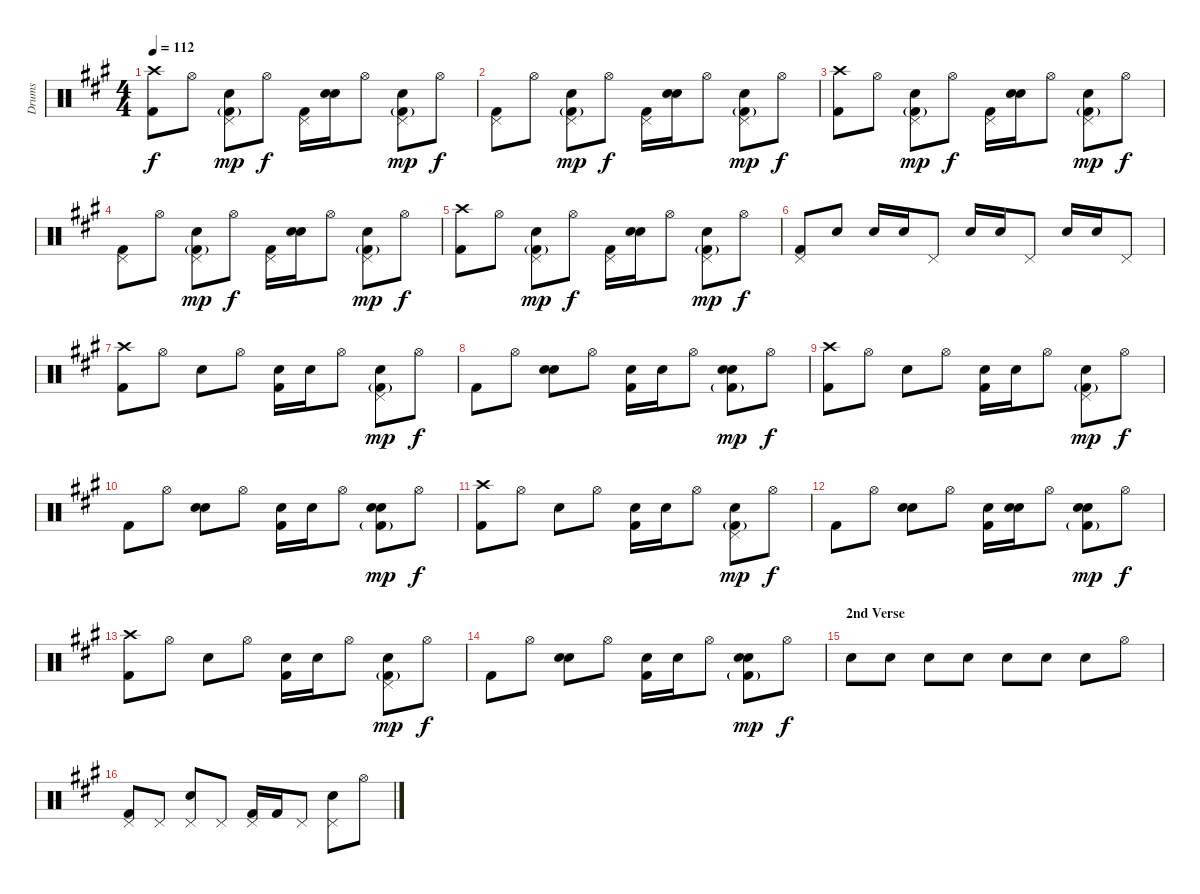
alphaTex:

\track ("Drums" "Drums") {instrument percussion}
\staff {score}
\articulation defaults
\ts (4 4)
\tempo 112
\clef neutral
\ks a
("Crash high (hit)" "Kick (hit) 2").8{dy f} "Hi-Hat (open)".8 ("Pedal Hi-Hat (hit)" "Electric Snare (hit)" "Kick (hit) 2"{g}).8{dy mp} "Hi-Hat (open)".8{dy f} ("Pedal Hi-Hat (hit)" "Kick (hit) 2").16 ("Snare (hit)"{x} "Electric Snare (hit)").16 "Hi-Hat (open)".8 ("Pedal Hi-Hat (hit)" "Electric Snare (hit)" "Kick (hit) 2"{g}).8{dy mp} "Hi-Hat (open)".8{dy f} |
("Pedal Hi-Hat (hit)" "Kick (hit) 2").8 "Hi-Hat (open)".8 ("Pedal Hi-Hat (hit)" "Electric Snare (hit)" "Kick (hit) 2"{g}).8{dy mp} "Hi-Hat (open)".8{dy f} ("Pedal Hi-Hat (hit)" "Kick (hit) 2").16 ("Snare (hit)"{x} "Electric Snare (hit)").16 "Hi-Hat (open)".8 ("Pedal Hi-Hat (hit)" "Electric Snare (hit)" "Kick (hit) 2"{g}).8{dy mp} "Hi-Hat (open)".8{dy f} |
("Crash high (hit)" "Kick (hit) 2").8 "Hi-Hat (open)".8 ("Pedal Hi-Hat (hit)" "Electric Snare (hit)" "Kick (hit) 2"{g}).8{dy mp} "Hi-Hat (open)".8{dy f} ("Pedal Hi-Hat (hit)" "Kick (hit) 2").16 ("Snare (hit)"{x} "Electric Snare (hit)").16 "Hi-Hat (open)".8 ("Pedal Hi-Hat (hit)" "Electric Snare (hit)" "Kick (hit) 2"{g}).8{dy mp} "Hi-Hat (open)".8{dy f} |
("Pedal Hi-Hat (hit)" "Kick (hit) 2").8 "Hi-Hat (open)".8 ("Pedal Hi-Hat (hit)" "Electric Snare (hit)" "Kick (hit) 2"{g}).8{dy mp} "Hi-Hat (open)".8{dy f} ("Pedal Hi-Hat (hit)" "Kick (hit) 2").16 ("Snare (hit)"{x} "Electric Snare (hit)").16 "Hi-Hat (open)".8 ("Pedal Hi-Hat (hit)" "Electric Snare (hit)" "Kick (hit) 2"{g}).8{dy mp} "Hi-Hat (open)".8{dy f} |
("Crash high (hit)" "Kick (hit) 2").8 "Hi-Hat (open)".8 ("Pedal Hi-Hat (hit)" "Electric Snare (hit)" "Kick (hit) 2"{g}).8{dy mp} "Hi-Hat (open)".8{dy f} ("Pedal Hi-Hat (hit)" "Kick (hit) 2").16 ("Snare (hit)"{x} "Electric Snare (hit)").16 "Hi-Hat (open)".8 ("Pedal Hi-Hat (hit)" "Electric Snare (hit)" "Kick (hit) 2"{g}).8{dy mp} "Hi-Hat (open)".8{dy f} |
("Pedal Hi-Hat (hit)" "Kick (hit) 2").8 "Electric Snare (hit)".8 "Electric Snare (hit)".16 "Electric Snare (hit)".16 "Pedal Hi-Hat (hit)".8 "Electric Snare (hit)".16 "Electric Snare (hit)".16 "Pedal Hi-Hat (hit)".8 "Electric Snare (hit)".16 "Electric Snare (hit)".16 "Pedal Hi-Hat (hit)".8 |
("Crash high (hit)" "Kick (hit) 2").8 "Hi-Hat (open)".8 "Electric Snare (hit)".8 "Hi-Hat (open)".8 ("Snare (hit)"{x} "Kick (hit) 2").16 "Electric Snare (hit)".16 "Hi-Hat (open)".8 ("Pedal Hi-Hat (hit)"{x} "Electric Snare (hit)" "Kick (hit) 2"{g}).8{dy mp} "Hi-Hat (open)".8{dy f} |
"Kick (hit) 2".8 "Hi-Hat (open)".8 ("Snare (hit)"{x} "Electric Snare (hit)").8 "Hi-Hat (open)".8 ("Snare (hit)"{x} "Kick (hit) 2").16 "Electric Snare (hit)".16 "Hi-Hat (open)".8 ("Snare (hit)"{x} "Electric Snare (hit)" "Kick (hit) 2"{g}).8{dy mp} "Hi-Hat (open)".8{dy f} |
("Crash high (hit)" "Kick (hit) 2").8 "Hi-Hat (open)".8 "Electric Snare (hit)".8 "Hi-Hat (open)".8 ("Snare (hit)"{x} "Kick (hit) 2").16 "Electric Snare (hit)".16 "Hi-Hat (open)".8 ("Pedal Hi-Hat (hit)"{x} "Electric Snare (hit)" "Kick (hit) 2"{g}).8{dy mp} "Hi-Hat (open)".8{dy f} |
"Kick (hit) 2".8 "Hi-Hat (open)".8 ("Snare (hit)"{x} "Electric Snare (hit)").8 "Hi-Hat (open)".8 ("Snare (hit)"{x} "Kick (hit) 2").16 "Electric Snare (hit)".16 "Hi-Hat (open)".8 ("Snare (hit)"{x} "Electric Snare (hit)" "Kick (hit) 2"{g}).8{dy mp} "Hi-Hat (open)".8{dy f} |
("Crash high (hit)" "Kick (hit) 2").8 "Hi-Hat (open)".8 "Electric Snare (hit)".8 "Hi-Hat (open)".8 ("Snare (hit)"{x} "Kick (hit) 2").16 "Electric Snare (hit)".16 "Hi-Hat (open)".8 ("Pedal Hi-Hat (hit)"{x} "Electric Snare (hit)" "Kick (hit) 2"{g}).8{dy mp} "Hi-Hat (open)".8{dy f} |
"Kick (hit) 2".8 "Hi-Hat (open)".8 ("Snare (hit)"{x} "Electric Snare (hit)").8 "Hi-Hat (open)".8 ("Snare (hit)"{x} "Kick (hit) 2").16 ("Snare (hit)" "Electric Snare (hit)").16 "Hi-Hat (open)".8 ("Snare (hit)"{x} "Electric Snare (hit)" "Kick (hit) 2"{g}).8{dy mp} "Hi-Hat (open)".8{dy f} |
("Crash high (hit)" "Kick (hit) 2").8 "Hi-Hat (open)".8 "Electric Snare (hit)".8 "Hi-Hat (open)".8 ("Snare (hit)"{x} "Kick (hit) 2").16 "Electric Snare (hit)".16 "Hi-Hat (open)".8 ("Pedal Hi-Hat (hit)"{x} "Electric Snare (hit)" "Kick (hit) 2"{g}).8{dy mp} "Hi-Hat (open)".8{dy f} |
"Kick (hit) 2".8 "Hi-Hat (open)".8 ("Snare (hit)"{x} "Electric Snare (hit)").8 "Hi-Hat (open)".8 ("Snare (hit)"{x} "Kick (hit) 2").16 "Electric Snare (hit)".16 "Hi-Hat (open)".8 ("Snare (hit)"{x} "Electric Snare (hit)" "Kick (hit) 2"{g}).8{dy mp} "Hi-Hat (open)".8{dy f} |
\section ("" "2nd Verse")
"Snare (hit)"{x}.8 "Snare (hit)"{x}.8 "Snare (hit)"{x}.8 "Snare (hit)"{x}.8 "Snare (hit)"{x}.8 "Snare (hit)"{x}.8 "Snare (hit)"{x}.8 "Hi-Hat (open)".8 |
("Pedal Hi-Hat (hit)" "Kick (hit) 2").8 "Pedal Hi-Hat (hit)".8 ("Pedal Hi-Hat (hit)" "Electric Snare (hit)").8 "Pedal Hi-Hat (hit)".8 ("Pedal Hi-Hat (hit)" "Kick (hit) 2").16 "Kick (hit) 2".16 "Pedal Hi-Hat (hit)"{x}.8 ("Pedal Hi-Hat (hit)" "Electric Snare (hit)").8 "Hi-Hat (open)".8
